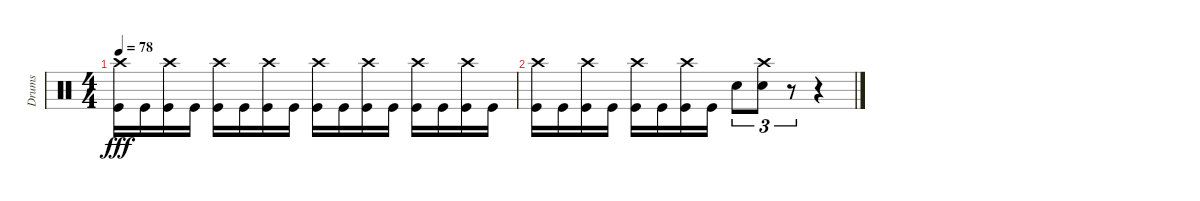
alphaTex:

\track ("Drums" "Drums") {instrument percussion}
\staff {score}
\articulation defaults
\ts (4 4)
\tempo 78
\clef neutral
\ks c
("Crash high (hit)" "Kick (hit)").16{dy fff} "Kick (hit)".16 ("Crash high (hit)" "Kick (hit)").16 "Kick (hit)".16 ("Crash high (hit)" "Kick (hit)").16 "Kick (hit)".16 ("Crash high (hit)" "Kick (hit)").16 "Kick (hit)".16 ("Crash high (hit)" "Kick (hit)").16 "Kick (hit)".16 ("Crash high (hit)" "Kick (hit)").16 "Kick (hit)".16 ("Crash high (hit)" "Kick (hit)").16 "Kick (hit)".16 ("Crash high (hit)" "Kick (hit)").16 "Kick (hit)".16 |
("Crash high (hit)" "Kick (hit)").16 "Kick (hit)".16 ("Crash high (hit)" "Kick (hit)").16 "Kick (hit)".16 ("Crash high (hit)" "Kick (hit)").16 "Kick (hit)".16 ("Crash high (hit)" "Kick (hit)").16 "Kick (hit)".16 "Electric Snare (hit)".8{tu (3 2)} ("Crash high (hit)" "Electric Snare (hit)").8{tu (3 2)} r.8{tu (3 2)} r.4
